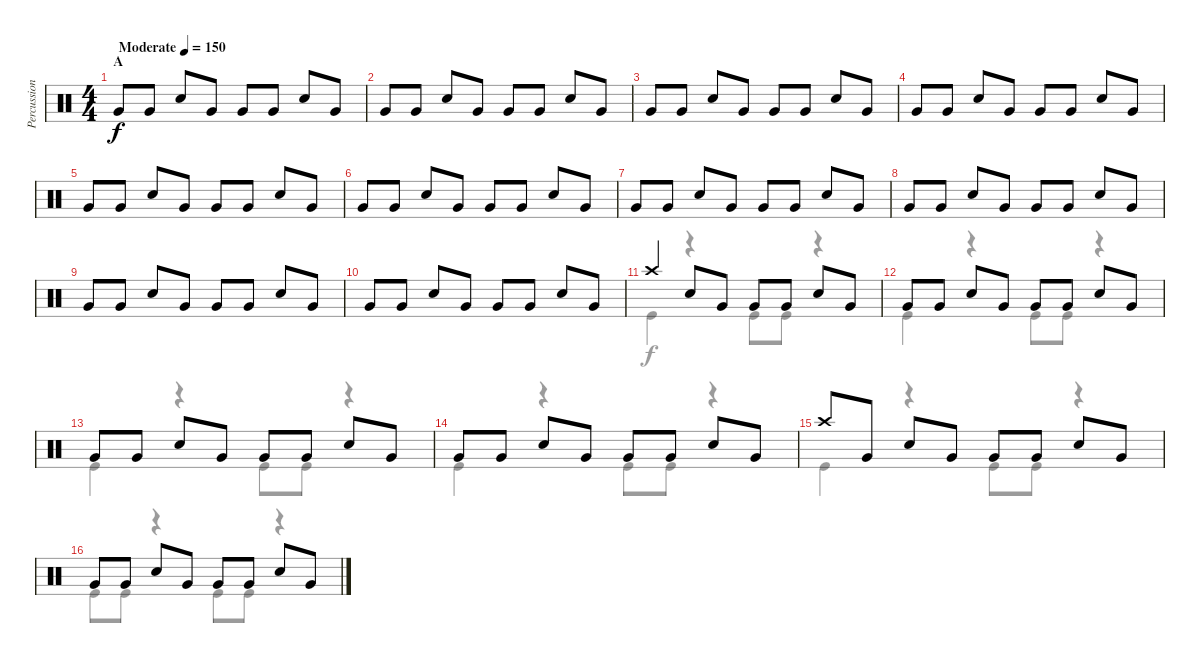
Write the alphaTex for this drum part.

\track ("Percussion" "Percussion") {instrument percussion}
\staff {score}
\articulation defaults
\voice
\ts (4 4)
\section ("" "A")
\tempo (150 "Moderate")
\clef neutral
\ks c "Very Low Tom (hit)".8{dy f} "Very Low Tom (hit)".8 "Snare (hit) 2".8 "Very Low Tom (hit)".8 "Very Low Tom (hit)".8 "Very Low Tom (hit)".8 "Snare (hit) 2".8 "Very Low Tom (hit)".8
|
"Very Low Tom (hit)".8 "Very Low Tom (hit)".8 "Snare (hit) 2".8 "Very Low Tom (hit)".8 "Very Low Tom (hit)".8 "Very Low Tom (hit)".8 "Snare (hit) 2".8 "Very Low Tom (hit)".8 |
"Very Low Tom (hit)".8 "Very Low Tom (hit)".8 "Snare (hit) 2".8 "Very Low Tom (hit)".8 "Very Low Tom (hit)".8 "Very Low Tom (hit)".8 "Snare (hit) 2".8 "Very Low Tom (hit)".8 |
"Very Low Tom (hit)".8 "Very Low Tom (hit)".8 "Snare (hit) 2".8 "Very Low Tom (hit)".8 "Very Low Tom (hit)".8 "Very Low Tom (hit)".8 "Snare (hit) 2".8 "Very Low Tom (hit)".8 |
"Very Low Tom (hit)".8 "Very Low Tom (hit)".8 "Snare (hit) 2".8 "Very Low Tom (hit)".8 "Very Low Tom (hit)".8 "Very Low Tom (hit)".8 "Snare (hit) 2".8 "Very Low Tom (hit)".8 |
"Very Low Tom (hit)".8 "Very Low Tom (hit)".8 "Snare (hit) 2".8 "Very Low Tom (hit)".8 "Very Low Tom (hit)".8 "Very Low Tom (hit)".8 "Snare (hit) 2".8 "Very Low Tom (hit)".8 |
"Very Low Tom (hit)".8 "Very Low Tom (hit)".8 "Snare (hit) 2".8 "Very Low Tom (hit)".8 "Very Low Tom (hit)".8 "Very Low Tom (hit)".8 "Snare (hit) 2".8 "Very Low Tom (hit)".8 |
"Very Low Tom (hit)".8 "Very Low Tom (hit)".8 "Snare (hit) 2".8 "Very Low Tom (hit)".8 "Very Low Tom (hit)".8 "Very Low Tom (hit)".8 "Snare (hit) 2".8 "Very Low Tom (hit)".8 |
"Very Low Tom (hit)".8 "Very Low Tom (hit)".8 "Snare (hit) 2".8 "Very Low Tom (hit)".8 "Very Low Tom (hit)".8 "Very Low Tom (hit)".8 "Snare (hit) 2".8 "Very Low Tom (hit)".8 |
"Very Low Tom (hit)".8 "Very Low Tom (hit)".8 "Snare (hit) 2".8 "Very Low Tom (hit)".8 "Very Low Tom (hit)".8 "Very Low Tom (hit)".8 "Snare (hit) 2".8 "Very Low Tom (hit)".8 |
"Crash high (hit)".4 "Snare (hit) 2".8 "Very Low Tom (hit)".8 "Very Low Tom (hit)".8 "Very Low Tom (hit)".8 "Snare (hit) 2".8 "Very Low Tom (hit)".8 |
"Very Low Tom (hit)".8 "Very Low Tom (hit)".8 "Snare (hit) 2".8 "Very Low Tom (hit)".8 "Very Low Tom (hit)".8 "Very Low Tom (hit)".8 "Snare (hit) 2".8 "Very Low Tom (hit)".8 |
"Very Low Tom (hit)".8 "Very Low Tom (hit)".8 "Snare (hit) 2".8 "Very Low Tom (hit)".8 "Very Low Tom (hit)".8 "Very Low Tom (hit)".8 "Snare (hit) 2".8 "Very Low Tom (hit)".8 |
"Very Low Tom (hit)".8 "Very Low Tom (hit)".8 "Snare (hit) 2".8 "Very Low Tom (hit)".8 "Very Low Tom (hit)".8 "Very Low Tom (hit)".8 "Snare (hit) 2".8 "Very Low Tom (hit)".8 |
"Crash high (hit)".8 "Very Low Tom (hit)".8 "Snare (hit) 2".8 "Very Low Tom (hit)".8 "Very Low Tom (hit)".8 "Very Low Tom (hit)".8 "Snare (hit) 2".8 "Very Low Tom (hit)".8 |
"Very Low Tom (hit)".8 "Very Low Tom (hit)".8 "Snare (hit) 2".8 "Very Low Tom (hit)".8 "Very Low Tom (hit)".8 "Very Low Tom (hit)".8 "Snare (hit) 2".8 "Very Low Tom (hit)".8
\voice
\clef neutral
\ottava regular
\simile none
\ks c
|
|
|
|
|
|
|
|
|
|
"Kick (hit)".4 r.4 "Kick (hit)".8 "Kick (hit)".8 r.4 |
"Kick (hit)".4 r.4 "Kick (hit)".8 "Kick (hit)".8 r.4 |
"Kick (hit)".4 r.4 "Kick (hit)".8 "Kick (hit)".8 r.4 |
"Kick (hit)".4 r.4 "Kick (hit)".8 "Kick (hit)".8 r.4 |
"Kick (hit)".4 r.4 "Kick (hit)".8 "Kick (hit)".8 r.4 |
"Kick (hit)".8 "Kick (hit)".8 r.4 "Kick (hit)".8 "Kick (hit)".8 r.4
